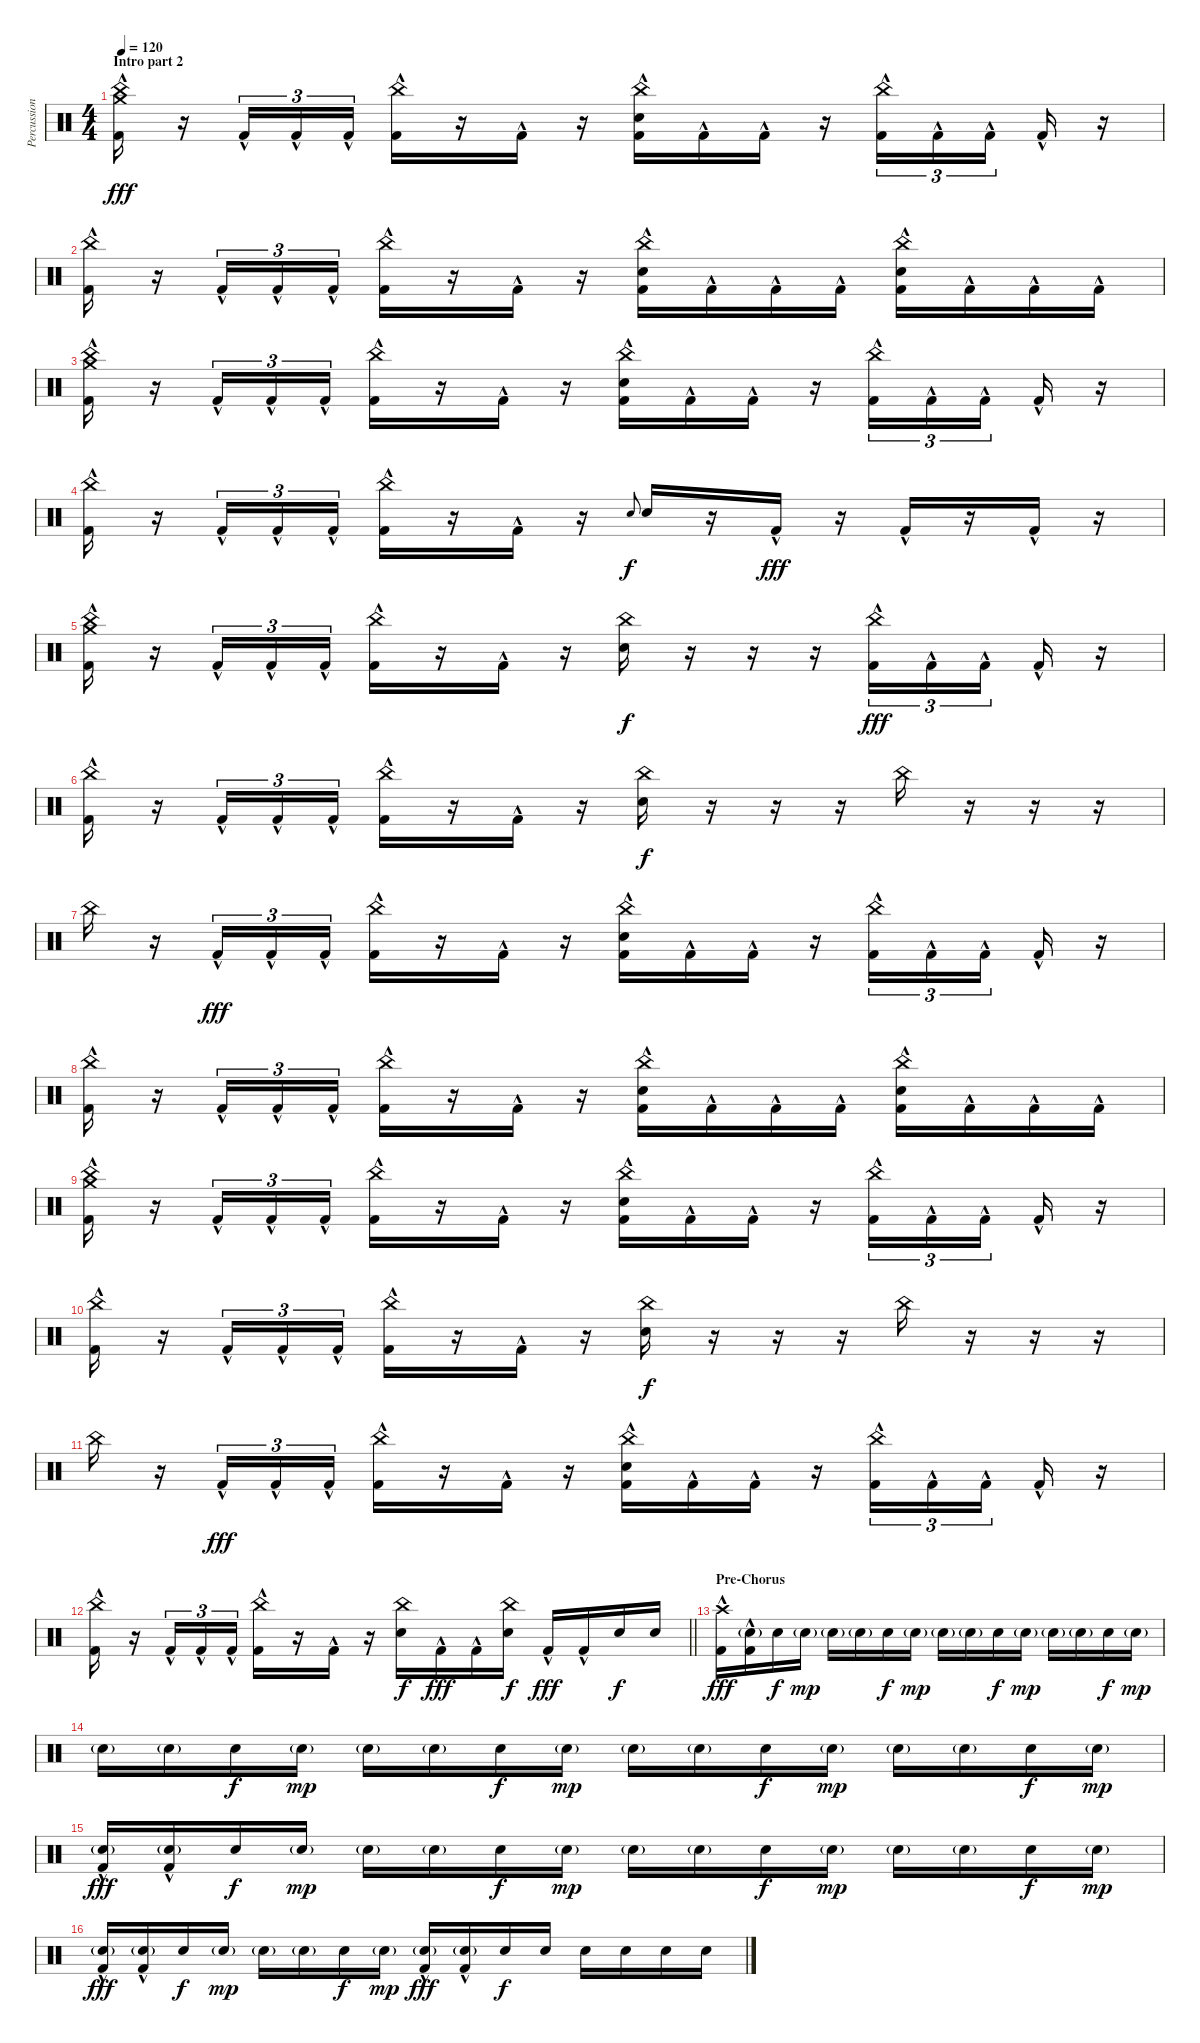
\track ("Percussion" "Percussion") {instrument percussion}
\staff {score}
\articulation defaults
\ts (4 4)
\section ("" "Intro part 2")
\tempo 120
\clef neutral
\ks c
("China (hit)" "Crash medium (hit)" "Kick (hit) 2"{hac}).16{dy fff} r.16 "Kick (hit) 2"{hac}.16{tu (3 2)} "Kick (hit) 2"{hac}.16{tu (3 2)} "Kick (hit) 2"{hac}.16{tu (3 2)} ("China (hit)" "Kick (hit) 2"{hac}).16 r.16 "Kick (hit) 2"{hac}.16 r.16 ("China (hit)" "Snare (hit) 2" "Kick (hit) 2"{hac}).16 "Kick (hit) 2"{hac}.16 "Kick (hit) 2"{hac}.16 r.16 ("China (hit)" "Kick (hit) 2"{hac}).16{tu (3 2)} "Kick (hit) 2"{hac}.16{tu (3 2)} "Kick (hit) 2"{hac}.16{tu (3 2) beam splitsecondary} "Kick (hit) 2"{hac}.16 r.16 |
("China (hit)" "Kick (hit) 2"{hac}).16 r.16 "Kick (hit) 2"{hac}.16{tu (3 2)} "Kick (hit) 2"{hac}.16{tu (3 2)} "Kick (hit) 2"{hac}.16{tu (3 2)} ("China (hit)" "Kick (hit) 2"{hac}).16 r.16 "Kick (hit) 2"{hac}.16 r.16 ("China (hit)" "Snare (hit) 2" "Kick (hit) 2"{hac}).16 "Kick (hit) 2"{hac}.16 "Kick (hit) 2"{hac}.16 "Kick (hit) 2"{hac}.16 ("China (hit)" "Snare (hit) 2" "Kick (hit) 2"{hac}).16 "Kick (hit) 2"{hac}.16 "Kick (hit) 2"{hac}.16 "Kick (hit) 2"{hac}.16 |
("China (hit)" "Crash medium (hit)" "Kick (hit) 2"{hac}).16 r.16 "Kick (hit) 2"{hac}.16{tu (3 2)} "Kick (hit) 2"{hac}.16{tu (3 2)} "Kick (hit) 2"{hac}.16{tu (3 2)} ("China (hit)" "Kick (hit) 2"{hac}).16 r.16 "Kick (hit) 2"{hac}.16 r.16 ("China (hit)" "Snare (hit) 2" "Kick (hit) 2"{hac}).16 "Kick (hit) 2"{hac}.16 "Kick (hit) 2"{hac}.16 r.16 ("China (hit)" "Kick (hit) 2"{hac}).16{tu (3 2)} "Kick (hit) 2"{hac}.16{tu (3 2)} "Kick (hit) 2"{hac}.16{tu (3 2) beam splitsecondary} "Kick (hit) 2"{hac}.16 r.16 |
("China (hit)" "Kick (hit) 2"{hac}).16 r.16 "Kick (hit) 2"{hac}.16{tu (3 2)} "Kick (hit) 2"{hac}.16{tu (3 2)} "Kick (hit) 2"{hac}.16{tu (3 2)} ("China (hit)" "Kick (hit) 2"{hac}).16 r.16 "Kick (hit) 2"{hac}.16 r.16 "Snare (hit) 2".8{gr onbeat dy f} "Snare (hit) 2".16 r.16 "Kick (hit) 2"{hac}.16{dy fff} r.16 "Kick (hit) 2"{hac}.16 r.16 "Kick (hit) 2"{hac}.16 r.16 |
("China (hit)" "Crash medium (hit)" "Kick (hit) 2"{hac}).16 r.16 "Kick (hit) 2"{hac}.16{tu (3 2)} "Kick (hit) 2"{hac}.16{tu (3 2)} "Kick (hit) 2"{hac}.16{tu (3 2)} ("China (hit)" "Kick (hit) 2"{hac}).16 r.16 "Kick (hit) 2"{hac}.16 r.16 ("China (hit)" "Snare (hit) 2").16{dy f} r.16 r.16 r.16 ("China (hit)" "Kick (hit) 2"{hac}).16{tu (3 2) dy fff} "Kick (hit) 2"{hac}.16{tu (3 2)} "Kick (hit) 2"{hac}.16{tu (3 2) beam splitsecondary} "Kick (hit) 2"{hac}.16 r.16 |
("China (hit)" "Kick (hit) 2"{hac}).16 r.16 "Kick (hit) 2"{hac}.16{tu (3 2)} "Kick (hit) 2"{hac}.16{tu (3 2)} "Kick (hit) 2"{hac}.16{tu (3 2)} ("China (hit)" "Kick (hit) 2"{hac}).16 r.16 "Kick (hit) 2"{hac}.16 r.16 ("China (hit)" "Snare (hit) 2").16{dy f} r.16 r.16 r.16 "China (hit)".16 r.16 r.16 r.16 |
"China (hit)".16 r.16 "Kick (hit) 2"{hac}.16{tu (3 2) dy fff} "Kick (hit) 2"{hac}.16{tu (3 2)} "Kick (hit) 2"{hac}.16{tu (3 2)} ("China (hit)" "Kick (hit) 2"{hac}).16 r.16 "Kick (hit) 2"{hac}.16 r.16 ("China (hit)" "Snare (hit) 2" "Kick (hit) 2"{hac}).16 "Kick (hit) 2"{hac}.16 "Kick (hit) 2"{hac}.16 r.16 ("China (hit)" "Kick (hit) 2"{hac}).16{tu (3 2)} "Kick (hit) 2"{hac}.16{tu (3 2)} "Kick (hit) 2"{hac}.16{tu (3 2) beam splitsecondary} "Kick (hit) 2"{hac}.16 r.16 |
("China (hit)" "Kick (hit) 2"{hac}).16 r.16 "Kick (hit) 2"{hac}.16{tu (3 2)} "Kick (hit) 2"{hac}.16{tu (3 2)} "Kick (hit) 2"{hac}.16{tu (3 2)} ("China (hit)" "Kick (hit) 2"{hac}).16 r.16 "Kick (hit) 2"{hac}.16 r.16 ("China (hit)" "Snare (hit) 2" "Kick (hit) 2"{hac}).16 "Kick (hit) 2"{hac}.16 "Kick (hit) 2"{hac}.16 "Kick (hit) 2"{hac}.16 ("China (hit)" "Snare (hit) 2" "Kick (hit) 2"{hac}).16 "Kick (hit) 2"{hac}.16 "Kick (hit) 2"{hac}.16 "Kick (hit) 2"{hac}.16 |
("China (hit)" "Crash medium (hit)" "Kick (hit) 2"{hac}).16 r.16 "Kick (hit) 2"{hac}.16{tu (3 2)} "Kick (hit) 2"{hac}.16{tu (3 2)} "Kick (hit) 2"{hac}.16{tu (3 2)} ("China (hit)" "Kick (hit) 2"{hac}).16 r.16 "Kick (hit) 2"{hac}.16 r.16 ("China (hit)" "Snare (hit) 2" "Kick (hit) 2"{hac}).16 "Kick (hit) 2"{hac}.16 "Kick (hit) 2"{hac}.16 r.16 ("China (hit)" "Kick (hit) 2"{hac}).16{tu (3 2)} "Kick (hit) 2"{hac}.16{tu (3 2)} "Kick (hit) 2"{hac}.16{tu (3 2) beam splitsecondary} "Kick (hit) 2"{hac}.16 r.16 |
("China (hit)" "Kick (hit) 2"{hac}).16 r.16 "Kick (hit) 2"{hac}.16{tu (3 2)} "Kick (hit) 2"{hac}.16{tu (3 2)} "Kick (hit) 2"{hac}.16{tu (3 2)} ("China (hit)" "Kick (hit) 2"{hac}).16 r.16 "Kick (hit) 2"{hac}.16 r.16 ("China (hit)" "Snare (hit) 2").16{dy f} r.16 r.16 r.16 "China (hit)".16 r.16 r.16 r.16 |
"China (hit)".16 r.16 "Kick (hit) 2"{hac}.16{tu (3 2) dy fff} "Kick (hit) 2"{hac}.16{tu (3 2)} "Kick (hit) 2"{hac}.16{tu (3 2)} ("China (hit)" "Kick (hit) 2"{hac}).16 r.16 "Kick (hit) 2"{hac}.16 r.16 ("China (hit)" "Snare (hit) 2" "Kick (hit) 2"{hac}).16 "Kick (hit) 2"{hac}.16 "Kick (hit) 2"{hac}.16 r.16 ("China (hit)" "Kick (hit) 2"{hac}).16{tu (3 2)} "Kick (hit) 2"{hac}.16{tu (3 2)} "Kick (hit) 2"{hac}.16{tu (3 2) beam splitsecondary} "Kick (hit) 2"{hac}.16 r.16 |
\barLineRight lightlight
("China (hit)" "Kick (hit) 2"{hac}).16 r.16 "Kick (hit) 2"{hac}.16{tu (3 2)} "Kick (hit) 2"{hac}.16{tu (3 2)} "Kick (hit) 2"{hac}.16{tu (3 2)} ("China (hit)" "Kick (hit) 2"{hac}).16 r.16 "Kick (hit) 2"{hac}.16 r.16 ("China (hit)" "Snare (hit) 2").16{dy f} "Kick (hit) 2"{hac}.16{dy fff} "Kick (hit) 2"{hac}.16 ("China (hit)" "Snare (hit) 2").16{dy f} "Kick (hit) 2"{hac}.16{dy fff} "Kick (hit) 2"{hac}.16 "Snare (hit) 2".16{dy f} "Snare (hit) 2".16 |
\section ("" "Pre-Chorus")
("Crash high (hit)" "Kick (hit) 2"{hac}).16{dy fff} ("Snare (hit) 2"{g} "Kick (hit) 2"{hac}).16 "Snare (hit) 2".16{dy f} "Snare (hit) 2"{g}.16{dy mp} "Snare (hit) 2"{g}.16 "Snare (hit) 2"{g}.16 "Snare (hit) 2".16{dy f} "Snare (hit) 2"{g}.16{dy mp} "Snare (hit) 2"{g}.16 "Snare (hit) 2"{g}.16 "Snare (hit) 2".16{dy f} "Snare (hit) 2"{g}.16{dy mp} "Snare (hit) 2"{g}.16 "Snare (hit) 2"{g}.16 "Snare (hit) 2".16{dy f} "Snare (hit) 2"{g}.16{dy mp} |
"Snare (hit) 2"{g}.16 "Snare (hit) 2"{g}.16 "Snare (hit) 2".16{dy f} "Snare (hit) 2"{g}.16{dy mp} "Snare (hit) 2"{g}.16 "Snare (hit) 2"{g}.16 "Snare (hit) 2".16{dy f} "Snare (hit) 2"{g}.16{dy mp} "Snare (hit) 2"{g}.16 "Snare (hit) 2"{g}.16 "Snare (hit) 2".16{dy f} "Snare (hit) 2"{g}.16{dy mp} "Snare (hit) 2"{g}.16 "Snare (hit) 2"{g}.16 "Snare (hit) 2".16{dy f} "Snare (hit) 2"{g}.16{dy mp} |
("Snare (hit) 2"{g} "Kick (hit) 2"{hac}).16{dy fff} ("Snare (hit) 2"{g} "Kick (hit) 2"{hac}).16 "Snare (hit) 2".16{dy f} "Snare (hit) 2"{g}.16{dy mp} "Snare (hit) 2"{g}.16 "Snare (hit) 2"{g}.16 "Snare (hit) 2".16{dy f} "Snare (hit) 2"{g}.16{dy mp} "Snare (hit) 2"{g}.16 "Snare (hit) 2"{g}.16 "Snare (hit) 2".16{dy f} "Snare (hit) 2"{g}.16{dy mp} "Snare (hit) 2"{g}.16 "Snare (hit) 2"{g}.16 "Snare (hit) 2".16{dy f} "Snare (hit) 2"{g}.16{dy mp} |
("Snare (hit) 2"{g} "Kick (hit) 2"{hac}).16{dy fff} ("Snare (hit) 2"{g} "Kick (hit) 2"{hac}).16 "Snare (hit) 2".16{dy f} "Snare (hit) 2"{g}.16{dy mp} "Snare (hit) 2"{g}.16 "Snare (hit) 2"{g}.16 "Snare (hit) 2".16{dy f} "Snare (hit) 2"{g}.16{dy mp} ("Snare (hit) 2"{g} "Kick (hit) 2"{hac}).16{dy fff} ("Snare (hit) 2"{g} "Kick (hit) 2"{hac}).16 "Snare (hit) 2".16{dy f} "Snare (hit) 2".16 "Snare (hit) 2".16 "Snare (hit) 2".16 "Snare (hit) 2".16 "Snare (hit) 2".16
